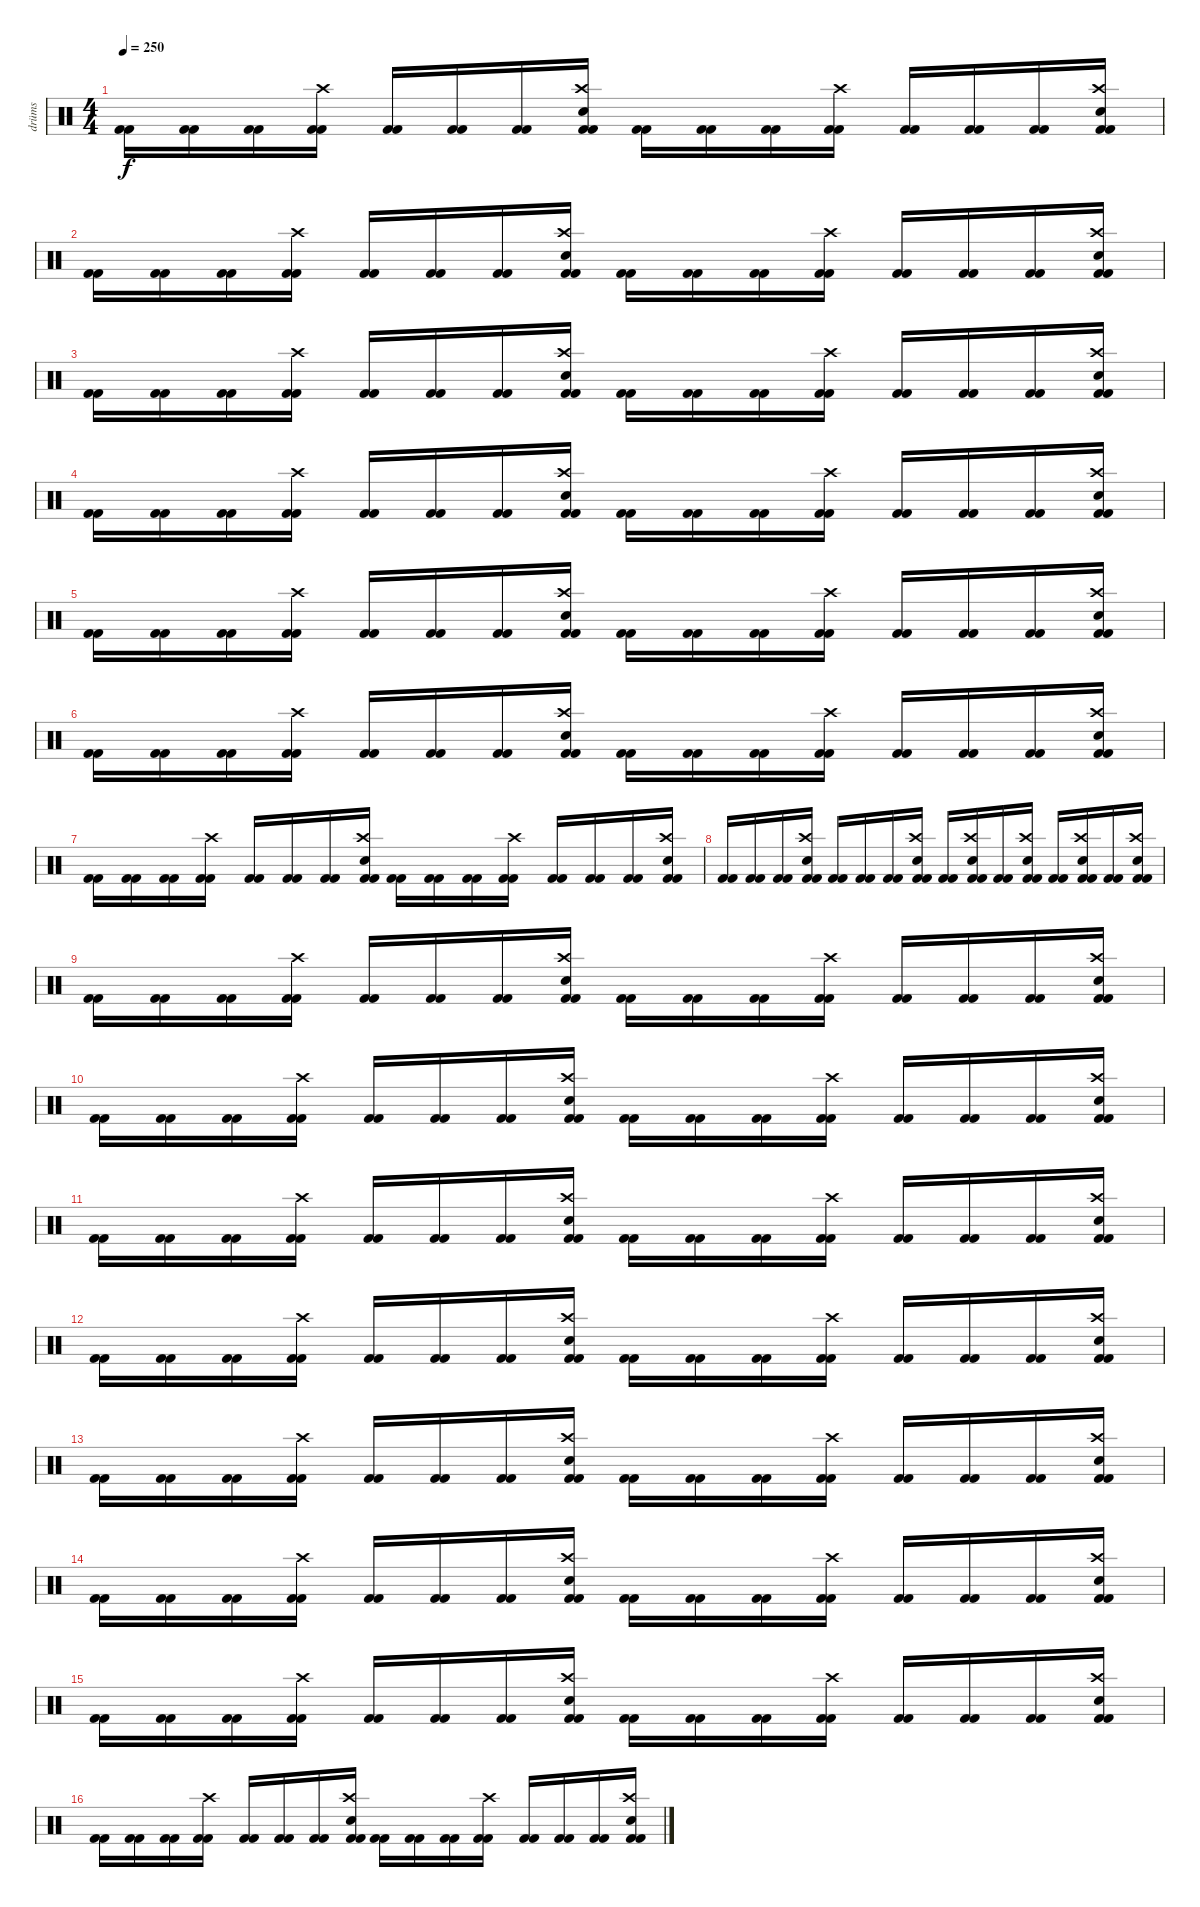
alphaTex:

\track ("drüms" "drüms") {instrument percussion}
\staff {score}
\articulation defaults
\ts (4 4)
\tempo 250
\clef neutral
\ks c
("Kick (hit) 2" "Kick (hit) 2").16{dy f} ("Kick (hit) 2" "Kick (hit) 2").16 ("Kick (hit) 2" "Kick (hit) 2").16 ("Crash high (hit)" "Kick (hit) 2" "Kick (hit) 2").16 ("Kick (hit) 2" "Kick (hit) 2").16 ("Kick (hit) 2" "Kick (hit) 2").16 ("Kick (hit) 2" "Kick (hit) 2").16 ("Electric Snare (hit)" "Crash high (hit)" "Kick (hit) 2" "Kick (hit) 2").16 ("Kick (hit) 2" "Kick (hit) 2").16 ("Kick (hit) 2" "Kick (hit) 2").16 ("Kick (hit) 2" "Kick (hit) 2").16 ("Crash high (hit)" "Kick (hit) 2" "Kick (hit) 2").16 ("Kick (hit) 2" "Kick (hit) 2").16 ("Kick (hit) 2" "Kick (hit) 2").16 ("Kick (hit) 2" "Kick (hit) 2").16 ("Electric Snare (hit)" "Crash high (hit)" "Kick (hit) 2" "Kick (hit) 2").16 |
("Kick (hit) 2" "Kick (hit) 2").16 ("Kick (hit) 2" "Kick (hit) 2").16 ("Kick (hit) 2" "Kick (hit) 2").16 ("Crash high (hit)" "Kick (hit) 2" "Kick (hit) 2").16 ("Kick (hit) 2" "Kick (hit) 2").16 ("Kick (hit) 2" "Kick (hit) 2").16 ("Kick (hit) 2" "Kick (hit) 2").16 ("Electric Snare (hit)" "Crash high (hit)" "Kick (hit) 2" "Kick (hit) 2").16 ("Kick (hit) 2" "Kick (hit) 2").16 ("Kick (hit) 2" "Kick (hit) 2").16 ("Kick (hit) 2" "Kick (hit) 2").16 ("Crash high (hit)" "Kick (hit) 2" "Kick (hit) 2").16 ("Kick (hit) 2" "Kick (hit) 2").16 ("Kick (hit) 2" "Kick (hit) 2").16 ("Kick (hit) 2" "Kick (hit) 2").16 ("Electric Snare (hit)" "Crash high (hit)" "Kick (hit) 2" "Kick (hit) 2").16 |
("Kick (hit) 2" "Kick (hit) 2").16 ("Kick (hit) 2" "Kick (hit) 2").16 ("Kick (hit) 2" "Kick (hit) 2").16 ("Crash high (hit)" "Kick (hit) 2" "Kick (hit) 2").16 ("Kick (hit) 2" "Kick (hit) 2").16 ("Kick (hit) 2" "Kick (hit) 2").16 ("Kick (hit) 2" "Kick (hit) 2").16 ("Electric Snare (hit)" "Crash high (hit)" "Kick (hit) 2" "Kick (hit) 2").16 ("Kick (hit) 2" "Kick (hit) 2").16 ("Kick (hit) 2" "Kick (hit) 2").16 ("Kick (hit) 2" "Kick (hit) 2").16 ("Crash high (hit)" "Kick (hit) 2" "Kick (hit) 2").16 ("Kick (hit) 2" "Kick (hit) 2").16 ("Kick (hit) 2" "Kick (hit) 2").16 ("Kick (hit) 2" "Kick (hit) 2").16 ("Electric Snare (hit)" "Crash high (hit)" "Kick (hit) 2" "Kick (hit) 2").16 |
("Kick (hit) 2" "Kick (hit) 2").16 ("Kick (hit) 2" "Kick (hit) 2").16 ("Kick (hit) 2" "Kick (hit) 2").16 ("Crash high (hit)" "Kick (hit) 2" "Kick (hit) 2").16 ("Kick (hit) 2" "Kick (hit) 2").16 ("Kick (hit) 2" "Kick (hit) 2").16 ("Kick (hit) 2" "Kick (hit) 2").16 ("Electric Snare (hit)" "Crash high (hit)" "Kick (hit) 2" "Kick (hit) 2").16 ("Kick (hit) 2" "Kick (hit) 2").16 ("Kick (hit) 2" "Kick (hit) 2").16 ("Kick (hit) 2" "Kick (hit) 2").16 ("Crash high (hit)" "Kick (hit) 2" "Kick (hit) 2").16 ("Kick (hit) 2" "Kick (hit) 2").16 ("Kick (hit) 2" "Kick (hit) 2").16 ("Kick (hit) 2" "Kick (hit) 2").16 ("Electric Snare (hit)" "Crash high (hit)" "Kick (hit) 2" "Kick (hit) 2").16 |
("Kick (hit) 2" "Kick (hit) 2").16 ("Kick (hit) 2" "Kick (hit) 2").16 ("Kick (hit) 2" "Kick (hit) 2").16 ("Crash high (hit)" "Kick (hit) 2" "Kick (hit) 2").16 ("Kick (hit) 2" "Kick (hit) 2").16 ("Kick (hit) 2" "Kick (hit) 2").16 ("Kick (hit) 2" "Kick (hit) 2").16 ("Electric Snare (hit)" "Crash high (hit)" "Kick (hit) 2" "Kick (hit) 2").16 ("Kick (hit) 2" "Kick (hit) 2").16 ("Kick (hit) 2" "Kick (hit) 2").16 ("Kick (hit) 2" "Kick (hit) 2").16 ("Crash high (hit)" "Kick (hit) 2" "Kick (hit) 2").16 ("Kick (hit) 2" "Kick (hit) 2").16 ("Kick (hit) 2" "Kick (hit) 2").16 ("Kick (hit) 2" "Kick (hit) 2").16 ("Electric Snare (hit)" "Crash high (hit)" "Kick (hit) 2" "Kick (hit) 2").16 |
("Kick (hit) 2" "Kick (hit) 2").16 ("Kick (hit) 2" "Kick (hit) 2").16 ("Kick (hit) 2" "Kick (hit) 2").16 ("Crash high (hit)" "Kick (hit) 2" "Kick (hit) 2").16 ("Kick (hit) 2" "Kick (hit) 2").16 ("Kick (hit) 2" "Kick (hit) 2").16 ("Kick (hit) 2" "Kick (hit) 2").16 ("Electric Snare (hit)" "Crash high (hit)" "Kick (hit) 2" "Kick (hit) 2").16 ("Kick (hit) 2" "Kick (hit) 2").16 ("Kick (hit) 2" "Kick (hit) 2").16 ("Kick (hit) 2" "Kick (hit) 2").16 ("Crash high (hit)" "Kick (hit) 2" "Kick (hit) 2").16 ("Kick (hit) 2" "Kick (hit) 2").16 ("Kick (hit) 2" "Kick (hit) 2").16 ("Kick (hit) 2" "Kick (hit) 2").16 ("Electric Snare (hit)" "Crash high (hit)" "Kick (hit) 2" "Kick (hit) 2").16 |
("Kick (hit) 2" "Kick (hit) 2").16 ("Kick (hit) 2" "Kick (hit) 2").16 ("Kick (hit) 2" "Kick (hit) 2").16 ("Crash high (hit)" "Kick (hit) 2" "Kick (hit) 2").16 ("Kick (hit) 2" "Kick (hit) 2").16 ("Kick (hit) 2" "Kick (hit) 2").16 ("Kick (hit) 2" "Kick (hit) 2").16 ("Electric Snare (hit)" "Crash high (hit)" "Kick (hit) 2" "Kick (hit) 2").16 ("Kick (hit) 2" "Kick (hit) 2").16 ("Kick (hit) 2" "Kick (hit) 2").16 ("Kick (hit) 2" "Kick (hit) 2").16 ("Crash high (hit)" "Kick (hit) 2" "Kick (hit) 2").16 ("Kick (hit) 2" "Kick (hit) 2").16 ("Kick (hit) 2" "Kick (hit) 2").16 ("Kick (hit) 2" "Kick (hit) 2").16 ("Electric Snare (hit)" "Crash high (hit)" "Kick (hit) 2" "Kick (hit) 2").16 |
("Kick (hit) 2" "Kick (hit) 2").16 ("Kick (hit) 2" "Kick (hit) 2").16 ("Kick (hit) 2" "Kick (hit) 2").16 ("Electric Snare (hit)" "Crash high (hit)" "Kick (hit) 2" "Kick (hit) 2").16 ("Kick (hit) 2" "Kick (hit) 2").16 ("Kick (hit) 2" "Kick (hit) 2").16 ("Kick (hit) 2" "Kick (hit) 2").16 ("Electric Snare (hit)" "Crash high (hit)" "Kick (hit) 2" "Kick (hit) 2").16 ("Kick (hit) 2" "Kick (hit) 2").16 ("Electric Snare (hit)" "Crash high (hit)" "Kick (hit) 2" "Kick (hit) 2").16 ("Kick (hit) 2" "Kick (hit) 2").16 ("Crash high (hit)" "Electric Snare (hit)" "Kick (hit) 2" "Kick (hit) 2").16 ("Kick (hit) 2" "Kick (hit) 2").16 ("Electric Snare (hit)" "Crash high (hit)" "Kick (hit) 2" "Kick (hit) 2").16 ("Kick (hit) 2" "Kick (hit) 2").16 ("Electric Snare (hit)" "Crash high (hit)" "Kick (hit) 2" "Kick (hit) 2").16 |
("Kick (hit) 2" "Kick (hit) 2").16 ("Kick (hit) 2" "Kick (hit) 2").16 ("Kick (hit) 2" "Kick (hit) 2").16 ("Crash high (hit)" "Kick (hit) 2" "Kick (hit) 2").16 ("Kick (hit) 2" "Kick (hit) 2").16 ("Kick (hit) 2" "Kick (hit) 2").16 ("Kick (hit) 2" "Kick (hit) 2").16 ("Electric Snare (hit)" "Crash high (hit)" "Kick (hit) 2" "Kick (hit) 2").16 ("Kick (hit) 2" "Kick (hit) 2").16 ("Kick (hit) 2" "Kick (hit) 2").16 ("Kick (hit) 2" "Kick (hit) 2").16 ("Crash high (hit)" "Kick (hit) 2" "Kick (hit) 2").16 ("Kick (hit) 2" "Kick (hit) 2").16 ("Kick (hit) 2" "Kick (hit) 2").16 ("Kick (hit) 2" "Kick (hit) 2").16 ("Electric Snare (hit)" "Crash high (hit)" "Kick (hit) 2" "Kick (hit) 2").16 |
("Kick (hit) 2" "Kick (hit) 2").16 ("Kick (hit) 2" "Kick (hit) 2").16 ("Kick (hit) 2" "Kick (hit) 2").16 ("Crash high (hit)" "Kick (hit) 2" "Kick (hit) 2").16 ("Kick (hit) 2" "Kick (hit) 2").16 ("Kick (hit) 2" "Kick (hit) 2").16 ("Kick (hit) 2" "Kick (hit) 2").16 ("Electric Snare (hit)" "Crash high (hit)" "Kick (hit) 2" "Kick (hit) 2").16 ("Kick (hit) 2" "Kick (hit) 2").16 ("Kick (hit) 2" "Kick (hit) 2").16 ("Kick (hit) 2" "Kick (hit) 2").16 ("Crash high (hit)" "Kick (hit) 2" "Kick (hit) 2").16 ("Kick (hit) 2" "Kick (hit) 2").16 ("Kick (hit) 2" "Kick (hit) 2").16 ("Kick (hit) 2" "Kick (hit) 2").16 ("Electric Snare (hit)" "Crash high (hit)" "Kick (hit) 2" "Kick (hit) 2").16 |
("Kick (hit) 2" "Kick (hit) 2").16 ("Kick (hit) 2" "Kick (hit) 2").16 ("Kick (hit) 2" "Kick (hit) 2").16 ("Crash high (hit)" "Kick (hit) 2" "Kick (hit) 2").16 ("Kick (hit) 2" "Kick (hit) 2").16 ("Kick (hit) 2" "Kick (hit) 2").16 ("Kick (hit) 2" "Kick (hit) 2").16 ("Electric Snare (hit)" "Crash high (hit)" "Kick (hit) 2" "Kick (hit) 2").16 ("Kick (hit) 2" "Kick (hit) 2").16 ("Kick (hit) 2" "Kick (hit) 2").16 ("Kick (hit) 2" "Kick (hit) 2").16 ("Crash high (hit)" "Kick (hit) 2" "Kick (hit) 2").16 ("Kick (hit) 2" "Kick (hit) 2").16 ("Kick (hit) 2" "Kick (hit) 2").16 ("Kick (hit) 2" "Kick (hit) 2").16 ("Electric Snare (hit)" "Crash high (hit)" "Kick (hit) 2" "Kick (hit) 2").16 |
("Kick (hit) 2" "Kick (hit) 2").16 ("Kick (hit) 2" "Kick (hit) 2").16 ("Kick (hit) 2" "Kick (hit) 2").16 ("Crash high (hit)" "Kick (hit) 2" "Kick (hit) 2").16 ("Kick (hit) 2" "Kick (hit) 2").16 ("Kick (hit) 2" "Kick (hit) 2").16 ("Kick (hit) 2" "Kick (hit) 2").16 ("Electric Snare (hit)" "Crash high (hit)" "Kick (hit) 2" "Kick (hit) 2").16 ("Kick (hit) 2" "Kick (hit) 2").16 ("Kick (hit) 2" "Kick (hit) 2").16 ("Kick (hit) 2" "Kick (hit) 2").16 ("Crash high (hit)" "Kick (hit) 2" "Kick (hit) 2").16 ("Kick (hit) 2" "Kick (hit) 2").16 ("Kick (hit) 2" "Kick (hit) 2").16 ("Kick (hit) 2" "Kick (hit) 2").16 ("Electric Snare (hit)" "Crash high (hit)" "Kick (hit) 2" "Kick (hit) 2").16 |
("Kick (hit) 2" "Kick (hit) 2").16 ("Kick (hit) 2" "Kick (hit) 2").16 ("Kick (hit) 2" "Kick (hit) 2").16 ("Crash high (hit)" "Kick (hit) 2" "Kick (hit) 2").16 ("Kick (hit) 2" "Kick (hit) 2").16 ("Kick (hit) 2" "Kick (hit) 2").16 ("Kick (hit) 2" "Kick (hit) 2").16 ("Electric Snare (hit)" "Crash high (hit)" "Kick (hit) 2" "Kick (hit) 2").16 ("Kick (hit) 2" "Kick (hit) 2").16 ("Kick (hit) 2" "Kick (hit) 2").16 ("Kick (hit) 2" "Kick (hit) 2").16 ("Crash high (hit)" "Kick (hit) 2" "Kick (hit) 2").16 ("Kick (hit) 2" "Kick (hit) 2").16 ("Kick (hit) 2" "Kick (hit) 2").16 ("Kick (hit) 2" "Kick (hit) 2").16 ("Electric Snare (hit)" "Crash high (hit)" "Kick (hit) 2" "Kick (hit) 2").16 |
("Kick (hit) 2" "Kick (hit) 2").16 ("Kick (hit) 2" "Kick (hit) 2").16 ("Kick (hit) 2" "Kick (hit) 2").16 ("Crash high (hit)" "Kick (hit) 2" "Kick (hit) 2").16 ("Kick (hit) 2" "Kick (hit) 2").16 ("Kick (hit) 2" "Kick (hit) 2").16 ("Kick (hit) 2" "Kick (hit) 2").16 ("Electric Snare (hit)" "Crash high (hit)" "Kick (hit) 2" "Kick (hit) 2").16 ("Kick (hit) 2" "Kick (hit) 2").16 ("Kick (hit) 2" "Kick (hit) 2").16 ("Kick (hit) 2" "Kick (hit) 2").16 ("Crash high (hit)" "Kick (hit) 2" "Kick (hit) 2").16 ("Kick (hit) 2" "Kick (hit) 2").16 ("Kick (hit) 2" "Kick (hit) 2").16 ("Kick (hit) 2" "Kick (hit) 2").16 ("Electric Snare (hit)" "Crash high (hit)" "Kick (hit) 2" "Kick (hit) 2").16 |
("Kick (hit) 2" "Kick (hit) 2").16 ("Kick (hit) 2" "Kick (hit) 2").16 ("Kick (hit) 2" "Kick (hit) 2").16 ("Crash high (hit)" "Kick (hit) 2" "Kick (hit) 2").16 ("Kick (hit) 2" "Kick (hit) 2").16 ("Kick (hit) 2" "Kick (hit) 2").16 ("Kick (hit) 2" "Kick (hit) 2").16 ("Electric Snare (hit)" "Crash high (hit)" "Kick (hit) 2" "Kick (hit) 2").16 ("Kick (hit) 2" "Kick (hit) 2").16 ("Kick (hit) 2" "Kick (hit) 2").16 ("Kick (hit) 2" "Kick (hit) 2").16 ("Crash high (hit)" "Kick (hit) 2" "Kick (hit) 2").16 ("Kick (hit) 2" "Kick (hit) 2").16 ("Kick (hit) 2" "Kick (hit) 2").16 ("Kick (hit) 2" "Kick (hit) 2").16 ("Electric Snare (hit)" "Crash high (hit)" "Kick (hit) 2" "Kick (hit) 2").16 |
("Kick (hit) 2" "Kick (hit) 2").16 ("Kick (hit) 2" "Kick (hit) 2").16 ("Kick (hit) 2" "Kick (hit) 2").16 ("Crash high (hit)" "Kick (hit) 2" "Kick (hit) 2").16 ("Kick (hit) 2" "Kick (hit) 2").16 ("Kick (hit) 2" "Kick (hit) 2").16 ("Kick (hit) 2" "Kick (hit) 2").16 ("Electric Snare (hit)" "Crash high (hit)" "Kick (hit) 2" "Kick (hit) 2").16 ("Kick (hit) 2" "Kick (hit) 2").16 ("Kick (hit) 2" "Kick (hit) 2").16 ("Kick (hit) 2" "Kick (hit) 2").16 ("Crash high (hit)" "Kick (hit) 2" "Kick (hit) 2").16 ("Kick (hit) 2" "Kick (hit) 2").16 ("Kick (hit) 2" "Kick (hit) 2").16 ("Kick (hit) 2" "Kick (hit) 2").16 ("Electric Snare (hit)" "Crash high (hit)" "Kick (hit) 2" "Kick (hit) 2").16
